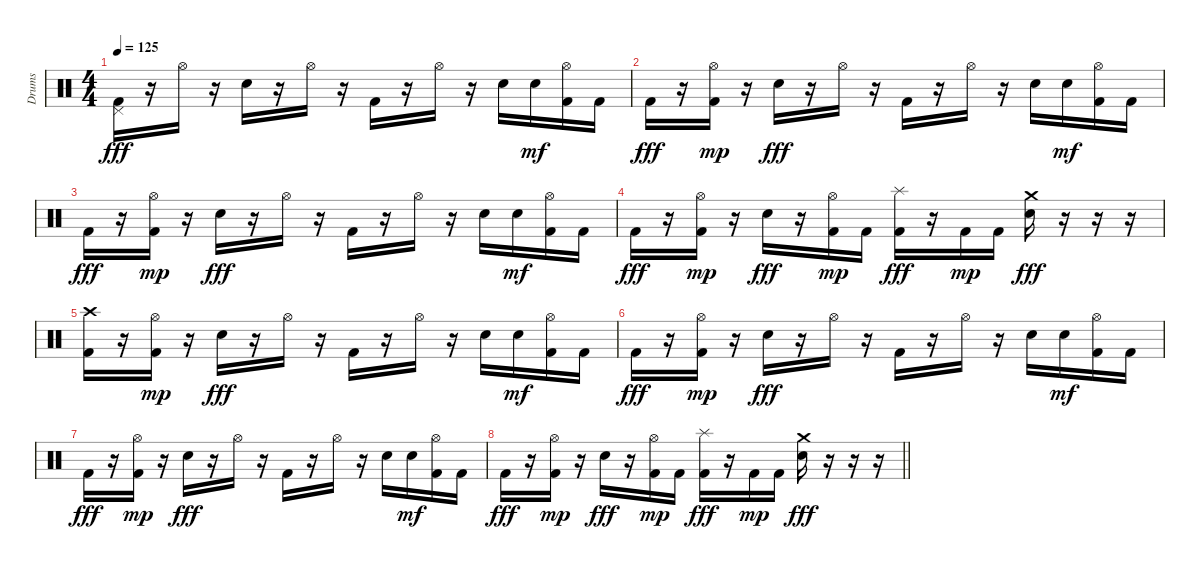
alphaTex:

\track ("Drums " "Drums ") {instrument percussion}
\staff {score}
\articulation defaults
\ts (4 4)
\tempo 125
\clef neutral
\ks c
("Pedal Hi-Hat (hit)" "Kick (hit) 2").16{dy fff} r.16 "Hi-Hat (open)".16 r.16 "Electric Snare (hit)".16 r.16 "Hi-Hat (open)".16 r.16 "Kick (hit) 2".16 r.16 "Hi-Hat (open)".16 r.16 "Electric Snare (hit)".16 "Electric Snare (hit)".16{dy mf} ("Hi-Hat (open)" "Kick (hit) 2").16 "Kick (hit) 2".16 |
"Kick (hit) 2".16{dy fff} r.16 ("Hi-Hat (open)" "Kick (hit) 2").16{dy mp} r.16 "Electric Snare (hit)".16{dy fff} r.16 "Hi-Hat (open)".16 r.16 "Kick (hit) 2".16 r.16 "Hi-Hat (open)".16 r.16 "Electric Snare (hit)".16 "Electric Snare (hit)".16{dy mf} ("Hi-Hat (open)" "Kick (hit) 2").16 "Kick (hit) 2".16 |
"Kick (hit) 2".16{dy fff} r.16 ("Hi-Hat (open)" "Kick (hit) 2").16{dy mp} r.16 "Electric Snare (hit)".16{dy fff} r.16 "Hi-Hat (open)".16 r.16 "Kick (hit) 2".16 r.16 "Hi-Hat (open)".16 r.16 "Electric Snare (hit)".16 "Electric Snare (hit)".16{dy mf} ("Hi-Hat (open)" "Kick (hit) 2").16 "Kick (hit) 2".16 |
"Kick (hit) 2".16{dy fff} r.16 ("Hi-Hat (open)" "Kick (hit) 2").16{dy mp} r.16 "Electric Snare (hit)".16{dy fff} r.16 ("Hi-Hat (open)" "Kick (hit) 2").16{dy mp} "Kick (hit) 2".16 ("Splash (hit)" "Kick (hit) 2").16{dy fff} r.16 "Kick (hit) 2".16{dy mp} "Kick (hit) 2".16 ("Crash medium (hit)" "Electric Snare (hit)").16{dy fff} r.16 r.16 r.16 |
("Crash high (hit)" "Kick (hit) 2").16 r.16 ("Hi-Hat (open)" "Kick (hit) 2").16{dy mp} r.16 "Electric Snare (hit)".16{dy fff} r.16 "Hi-Hat (open)".16 r.16 "Kick (hit) 2".16 r.16 "Hi-Hat (open)".16 r.16 "Electric Snare (hit)".16 "Electric Snare (hit)".16{dy mf} ("Hi-Hat (open)" "Kick (hit) 2").16 "Kick (hit) 2".16 |
"Kick (hit) 2".16{dy fff} r.16 ("Hi-Hat (open)" "Kick (hit) 2").16{dy mp} r.16 "Electric Snare (hit)".16{dy fff} r.16 "Hi-Hat (open)".16 r.16 "Kick (hit) 2".16 r.16 "Hi-Hat (open)".16 r.16 "Electric Snare (hit)".16 "Electric Snare (hit)".16{dy mf} ("Hi-Hat (open)" "Kick (hit) 2").16 "Kick (hit) 2".16 |
"Kick (hit) 2".16{dy fff} r.16 ("Hi-Hat (open)" "Kick (hit) 2").16{dy mp} r.16 "Electric Snare (hit)".16{dy fff} r.16 "Hi-Hat (open)".16 r.16 "Kick (hit) 2".16 r.16 "Hi-Hat (open)".16 r.16 "Electric Snare (hit)".16 "Electric Snare (hit)".16{dy mf} ("Hi-Hat (open)" "Kick (hit) 2").16 "Kick (hit) 2".16 |
\barLineRight lightlight "Kick (hit) 2".16{dy fff}
r.16 ("Hi-Hat (open)" "Kick (hit) 2").16{dy mp} r.16 "Electric Snare (hit)".16{dy fff} r.16 ("Hi-Hat (open)" "Kick (hit) 2").16{dy mp} "Kick (hit) 2".16 ("Splash (hit)" "Kick (hit) 2").16{dy fff} r.16 "Kick (hit) 2".16{dy mp} "Kick (hit) 2".16 ("Crash medium (hit)" "Electric Snare (hit)").16{dy fff} r.16 r.16 r.16
